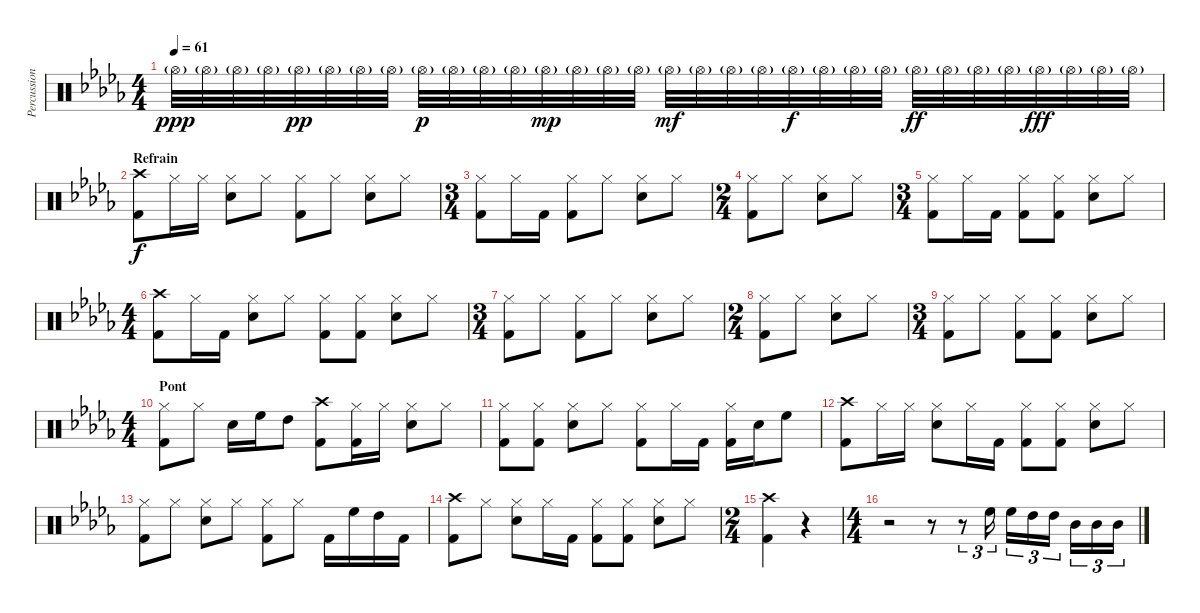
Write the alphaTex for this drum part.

\track ("Percussions" "Percussion") {instrument percussion}
\staff {score}
\articulation defaults
\ts (4 4)
\tempo 61
\clef neutral
\ks db "Hi-Hat (open)"{g}.32{dy ppp} "Hi-Hat (open)"{g}.32 "Hi-Hat (open)"{g}.32 "Hi-Hat (open)"{g}.32 "Hi-Hat (open)"{g}.32{dy pp} "Hi-Hat (open)"{g}.32 "Hi-Hat (open)"{g}.32 "Hi-Hat (open)"{g}.32 "Hi-Hat (open)"{g}.32{dy p} "Hi-Hat (open)"{g}.32 "Hi-Hat (open)"{g}.32 "Hi-Hat (open)"{g}.32 "Hi-Hat (open)"{g}.32{dy mp} "Hi-Hat (open)"{g}.32 "Hi-Hat (open)"{g}.32 "Hi-Hat (open)"{g}.32 "Hi-Hat (open)"{g}.32{dy mf} "Hi-Hat (open)"{g}.32 "Hi-Hat (open)"{g}.32 "Hi-Hat (open)"{g}.32 "Hi-Hat (open)"{g}.32{dy f} "Hi-Hat (open)"{g}.32 "Hi-Hat (open)"{g}.32 "Hi-Hat (open)"{g}.32 "Hi-Hat (open)"{g}.32{dy ff} "Hi-Hat (open)"{g}.32 "Hi-Hat (open)"{g}.32 "Hi-Hat (open)"{g}.32 "Hi-Hat (open)"{g}.32{dy fff} "Hi-Hat (open)"{g}.32 "Hi-Hat (open)"{g}.32 "Hi-Hat (open)"{g}.32
|
\section ("" "Refrain")
("Crash high (hit)" "Kick (hit) 2").8{dy f} "Hi-Hat (closed)".16 "Hi-Hat (closed)".16 ("Hi-Hat (closed)" "Electric Snare (hit)").8 "Hi-Hat (closed)".8 ("Hi-Hat (closed)" "Kick (hit) 2").8 "Hi-Hat (closed)".8 ("Hi-Hat (closed)" "Electric Snare (hit)").8 "Hi-Hat (closed)".8 |
\ts (3 4)
("Hi-Hat (closed)" "Kick (hit) 2").8 "Hi-Hat (closed)".16 "Kick (hit) 2".16 ("Hi-Hat (closed)" "Kick (hit) 2").8 "Hi-Hat (closed)".8 ("Hi-Hat (closed)" "Electric Snare (hit)").8 "Hi-Hat (closed)".8 |
\ts (2 4)
("Hi-Hat (closed)" "Kick (hit) 2").8 "Hi-Hat (closed)".8 ("Hi-Hat (closed)" "Electric Snare (hit)").8 "Hi-Hat (closed)".8 |
\ts (3 4)
("Hi-Hat (closed)" "Kick (hit) 2").8 "Hi-Hat (closed)".16 "Kick (hit) 2".16 ("Hi-Hat (closed)" "Kick (hit) 2").8 ("Hi-Hat (closed)" "Kick (hit) 2").8 ("Hi-Hat (closed)" "Electric Snare (hit)").8 "Hi-Hat (closed)".8 |
\ts (4 4)
("Crash high (hit)" "Kick (hit) 2").8 "Hi-Hat (closed)".16 "Kick (hit) 2".16 ("Hi-Hat (closed)" "Electric Snare (hit)").8 "Hi-Hat (closed)".8 ("Hi-Hat (closed)" "Kick (hit) 2").8 ("Hi-Hat (closed)" "Kick (hit) 2").8 ("Hi-Hat (closed)" "Electric Snare (hit)").8 "Hi-Hat (closed)".8 |
\ts (3 4)
("Hi-Hat (closed)" "Kick (hit) 2").8 "Hi-Hat (closed)".8 ("Hi-Hat (closed)" "Kick (hit) 2").8 "Hi-Hat (closed)".8 ("Hi-Hat (closed)" "Electric Snare (hit)").8 "Hi-Hat (closed)".8 |
\ts (2 4)
("Hi-Hat (closed)" "Kick (hit) 2").8 "Hi-Hat (closed)".8 ("Hi-Hat (closed)" "Electric Snare (hit)").8 "Hi-Hat (closed)".8 |
\ts (3 4)
("Hi-Hat (closed)" "Kick (hit) 2").8 "Hi-Hat (closed)".8 ("Hi-Hat (closed)" "Kick (hit) 2").8 ("Hi-Hat (closed)" "Kick (hit) 2").8 ("Hi-Hat (closed)" "Electric Snare (hit)").8 "Hi-Hat (closed)".8 |
\ts (4 4)
\section ("" "Pont")
("Hi-Hat (closed)" "Kick (hit) 2").8 "Hi-Hat (closed)".8 "Electric Snare (hit)".16 "High Floor Tom (hit)".16 "High Tom (hit)".8 ("Crash high (hit)" "Kick (hit) 2").8 ("Hi-Hat (closed)" "Kick (hit) 2").16 "Hi-Hat (closed)".16 ("Hi-Hat (closed)" "Electric Snare (hit)").8 "Hi-Hat (closed)".8 |
("Hi-Hat (closed)" "Kick (hit) 2").8 ("Hi-Hat (closed)" "Kick (hit) 2").8 ("Hi-Hat (closed)" "Electric Snare (hit)").8 "Hi-Hat (closed)".8 ("Hi-Hat (closed)" "Kick (hit) 2").8 "Hi-Hat (closed)".16 "Kick (hit) 2".16 ("Hi-Hat (closed)" "Kick (hit) 2").16 "Electric Snare (hit)".16 "High Floor Tom (hit)".8 |
("Crash high (hit)" "Kick (hit) 2").8 "Hi-Hat (closed)".16 "Hi-Hat (closed)".16 ("Hi-Hat (closed)" "Electric Snare (hit)").8 "Hi-Hat (closed)".16 "Kick (hit) 2".16 ("Hi-Hat (closed)" "Kick (hit) 2").8 ("Hi-Hat (closed)" "Kick (hit) 2").8 ("Hi-Hat (closed)" "Electric Snare (hit)").8 "Hi-Hat (closed)".8 |
("Hi-Hat (closed)" "Kick (hit) 2").8 "Hi-Hat (closed)".8 ("Hi-Hat (closed)" "Electric Snare (hit)").8 "Hi-Hat (closed)".8 ("Hi-Hat (closed)" "Kick (hit) 2").8 "Hi-Hat (closed)".8 "Kick (hit) 2".16 "High Floor Tom (hit)".16 "High Tom (hit)".16 "Kick (hit) 2".16 |
("Crash high (hit)" "Kick (hit) 2").8 "Hi-Hat (closed)".8 ("Hi-Hat (closed)" "Electric Snare (hit)").8 "Hi-Hat (closed)".16 "Kick (hit) 2".16 ("Hi-Hat (closed)" "Kick (hit) 2").8 ("Hi-Hat (closed)" "Kick (hit) 2").8 ("Hi-Hat (closed)" "Electric Snare (hit)").8 "Hi-Hat (closed)".8 |
\ts (2 4)
("Crash high (hit)" "Kick (hit) 2").4 r.4 |
\ts (4 4)
r.2 r.8 r.8{tu (3 2)} "High Floor Tom (hit)".16{tu (3 2)} "High Floor Tom (hit)".16{tu (3 2)} "High Tom (hit)".16{tu (3 2)} "High Tom (hit)".16{tu (3 2)} "Mid Tom (hit)".16{tu (3 2)} "Mid Tom (hit)".16{tu (3 2)} "Mid Tom (hit)".16{tu (3 2)}
